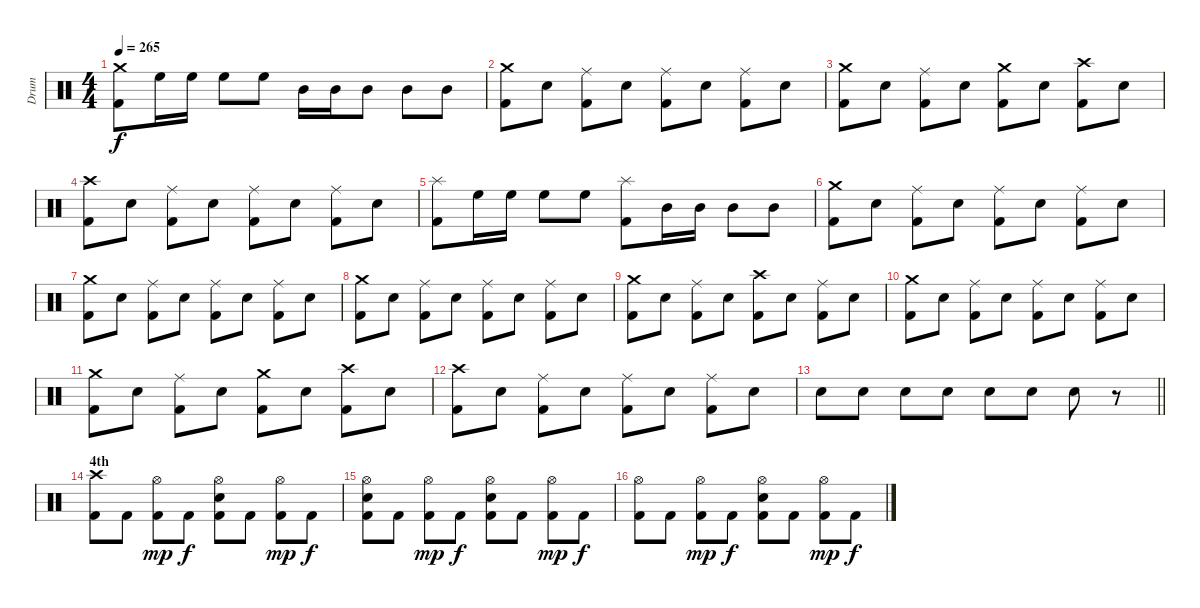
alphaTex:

\track ("Drum" "Drum") {instrument percussion}
\staff {score}
\articulation defaults
\ts (4 4)
\tempo 265
\clef neutral
\ks c
("Crash medium (hit)" "Kick (hit) 2").8{dy f} "High Floor Tom (hit)".16 "High Floor Tom (hit)".16 "High Floor Tom (hit)".8 "High Floor Tom (hit)".8 "Mid Tom (hit)".16 "Mid Tom (hit)".16 "Mid Tom (hit)".8 "Mid Tom (hit)".8 "Mid Tom (hit)".8 |
("Crash medium (hit)" "Kick (hit) 2").8 "Snare (hit) 2".8 ("Ride (middle)" "Kick (hit) 2").8 "Snare (hit) 2".8 ("Ride (middle)" "Kick (hit) 2").8 "Snare (hit) 2".8 ("Ride (middle)" "Kick (hit) 2").8 "Snare (hit) 2".8 |
("Crash medium (hit)" "Kick (hit) 2").8 "Snare (hit) 2".8 ("Ride (middle)" "Kick (hit) 2").8 "Snare (hit) 2".8 ("Crash medium (hit)" "Kick (hit) 2").8 "Snare (hit) 2".8 ("Crash high (hit)" "Kick (hit) 2").8 "Snare (hit) 2".8 |
("Crash high (hit)" "Kick (hit) 2").8 "Snare (hit) 2".8 ("Ride (middle)" "Kick (hit) 2").8 "Snare (hit) 2".8 ("Ride (middle)" "Kick (hit) 2").8 "Snare (hit) 2".8 ("Ride (middle)" "Kick (hit) 2").8 "Snare (hit) 2".8 |
("Splash (hit)" "Kick (hit) 2").8 "High Floor Tom (hit)".16 "High Floor Tom (hit)".16 "High Floor Tom (hit)".8 "High Floor Tom (hit)".8 ("Splash (hit)" "Kick (hit) 2").8 "Mid Tom (hit)".16 "Mid Tom (hit)".16 "Mid Tom (hit)".8 "Mid Tom (hit)".8 |
("Crash medium (hit)" "Kick (hit) 2").8 "Snare (hit) 2".8 ("Ride (middle)" "Kick (hit) 2").8 "Snare (hit) 2".8 ("Ride (middle)" "Kick (hit) 2").8 "Snare (hit) 2".8 ("Ride (middle)" "Kick (hit) 2").8 "Snare (hit) 2".8 |
("Crash medium (hit)" "Kick (hit) 2").8 "Snare (hit) 2".8 ("Ride (middle)" "Kick (hit) 2").8 "Snare (hit) 2".8 ("Ride (middle)" "Kick (hit) 2").8 "Snare (hit) 2".8 ("Ride (middle)" "Kick (hit) 2").8 "Snare (hit) 2".8 |
("Crash medium (hit)" "Kick (hit) 2").8 "Snare (hit) 2".8 ("Ride (middle)" "Kick (hit) 2").8 "Snare (hit) 2".8 ("Ride (middle)" "Kick (hit) 2").8 "Snare (hit) 2".8 ("Ride (middle)" "Kick (hit) 2").8 "Snare (hit) 2".8 |
("Crash medium (hit)" "Kick (hit) 2").8 "Snare (hit) 2".8 ("Ride (middle)" "Kick (hit) 2").8 "Snare (hit) 2".8 ("Crash high (hit)" "Kick (hit) 2").8 "Snare (hit) 2".8 ("Ride (middle)" "Kick (hit) 2").8 "Snare (hit) 2".8 |
("Crash medium (hit)" "Kick (hit) 2").8 "Snare (hit) 2".8 ("Ride (middle)" "Kick (hit) 2").8 "Snare (hit) 2".8 ("Ride (middle)" "Kick (hit) 2").8 "Snare (hit) 2".8 ("Ride (middle)" "Kick (hit) 2").8 "Snare (hit) 2".8 |
("Crash medium (hit)" "Kick (hit) 2").8 "Snare (hit) 2".8 ("Ride (middle)" "Kick (hit) 2").8 "Snare (hit) 2".8 ("Crash medium (hit)" "Kick (hit) 2").8 "Snare (hit) 2".8 ("Crash high (hit)" "Kick (hit) 2").8 "Snare (hit) 2".8 |
("Crash high (hit)" "Kick (hit) 2").8 "Snare (hit) 2".8 ("Ride (middle)" "Kick (hit) 2").8 "Snare (hit) 2".8 ("Ride (middle)" "Kick (hit) 2").8 "Snare (hit) 2".8 ("Ride (middle)" "Kick (hit) 2").8 "Snare (hit) 2".8 |
\barLineRight lightlight "Snare (hit) 2".8 "Snare (hit) 2".8 "Snare (hit) 2".8 "Snare (hit) 2".8 "Snare (hit) 2".8 "Snare (hit) 2".8 "Snare (hit) 2".8
r.8 |
\section ("" "4th")
("Crash high (hit)" "Kick (hit) 2").8 "Kick (hit) 2".8 ("Hi-Hat (open)" "Kick (hit) 2").8{dy mp} "Kick (hit) 2".8{dy f} ("Snare (hit) 2" "Hi-Hat (open)" "Kick (hit) 2").8 "Kick (hit) 2".8 ("Hi-Hat (open)" "Kick (hit) 2").8{dy mp} "Kick (hit) 2".8{dy f} |
("Hi-Hat (open)" "Snare (hit) 2" "Kick (hit) 2").8 "Kick (hit) 2".8 ("Hi-Hat (open)" "Kick (hit) 2").8{dy mp} "Kick (hit) 2".8{dy f} ("Snare (hit) 2" "Hi-Hat (open)" "Kick (hit) 2").8 "Kick (hit) 2".8 ("Hi-Hat (open)" "Kick (hit) 2").8{dy mp} "Kick (hit) 2".8{dy f} |
("Hi-Hat (open)" "Kick (hit) 2").8 "Kick (hit) 2".8 ("Hi-Hat (open)" "Kick (hit) 2").8{dy mp} "Kick (hit) 2".8{dy f} ("Snare (hit) 2" "Hi-Hat (open)" "Kick (hit) 2").8 "Kick (hit) 2".8 ("Hi-Hat (open)" "Kick (hit) 2").8{dy mp} "Kick (hit) 2".8{dy f}
